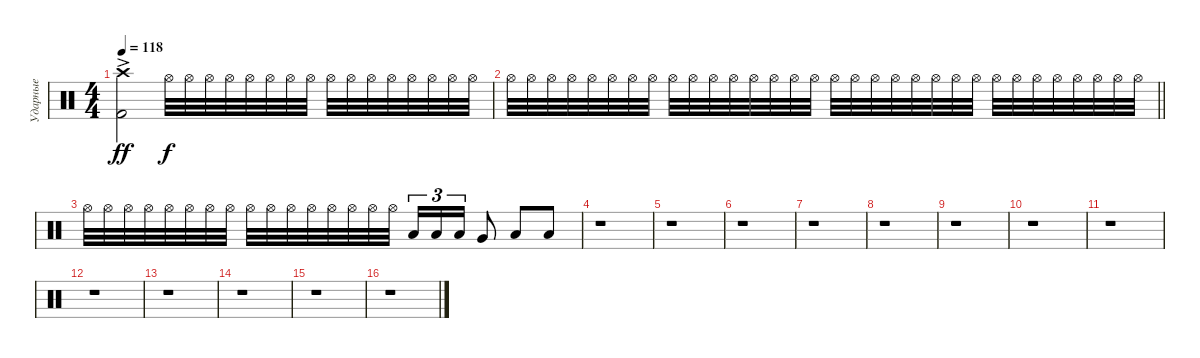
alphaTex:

\track ("Ударные" "Ударные") {instrument percussion}
\staff
\articulation defaults
\ts (4 4)
\tempo 118
\clef neutral
\ks c
("Kick (hit) 2" "Crash high (hit)"{ac}).2{dy ff} "Hi-Hat (open)".32{dy f volume 3} "Hi-Hat (open)".32{volume 10} "Hi-Hat (open)".32 "Hi-Hat (open)".32 "Hi-Hat (open)".32 "Hi-Hat (open)".32 "Hi-Hat (open)".32 "Hi-Hat (open)".32 "Hi-Hat (open)".32 "Hi-Hat (open)".32 "Hi-Hat (open)".32 "Hi-Hat (open)".32 "Hi-Hat (open)".32 "Hi-Hat (open)".32 "Hi-Hat (open)".32 "Hi-Hat (open)".32 |
\barLineRight lightlight "Hi-Hat (open)".32 "Hi-Hat (open)".32 "Hi-Hat (open)".32 "Hi-Hat (open)".32 "Hi-Hat (open)".32 "Hi-Hat (open)".32 "Hi-Hat (open)".32 "Hi-Hat (open)".32 "Hi-Hat (open)".32 "Hi-Hat (open)".32 "Hi-Hat (open)".32 "Hi-Hat (open)".32 "Hi-Hat (open)".32 "Hi-Hat (open)".32 "Hi-Hat (open)".32 "Hi-Hat (open)".32 "Hi-Hat (open)".32 "Hi-Hat (open)".32 "Hi-Hat (open)".32 "Hi-Hat (open)".32 "Hi-Hat (open)".32 "Hi-Hat (open)".32 "Hi-Hat (open)".32 "Hi-Hat (open)".32 "Hi-Hat (open)".32{volume 0} "Hi-Hat (open)".32 "Hi-Hat (open)".32 "Hi-Hat (open)".32 "Hi-Hat (open)".32 "Hi-Hat (open)".32 "Hi-Hat (open)".32 "Hi-Hat (open)".32
|
"Hi-Hat (open)".32 "Hi-Hat (open)".32 "Hi-Hat (open)".32 "Hi-Hat (open)".32 "Hi-Hat (open)".32 "Hi-Hat (open)".32 "Hi-Hat (open)".32 "Hi-Hat (open)".32 "Hi-Hat (open)".32 "Hi-Hat (open)".32 "Hi-Hat (open)".32 "Hi-Hat (open)".32 "Hi-Hat (open)".32 "Hi-Hat (open)".32 "Hi-Hat (open)".32 "Hi-Hat (open)".32 "Low Tom (hit)".16{tu (3 2) volume 10} "Low Tom (hit)".16{tu (3 2)} "Low Tom (hit)".16{tu (3 2)} "Very Low Tom (hit)".8 "Low Floor Tom (hit)".8 "Low Floor Tom (hit)".8 |
r.1 |
r.1 |
r.1 |
r.1 |
r.1 |
r.1 |
r.1 |
r.1 |
r.1 |
r.1 |
r.1 |
r.1 |
r.1
